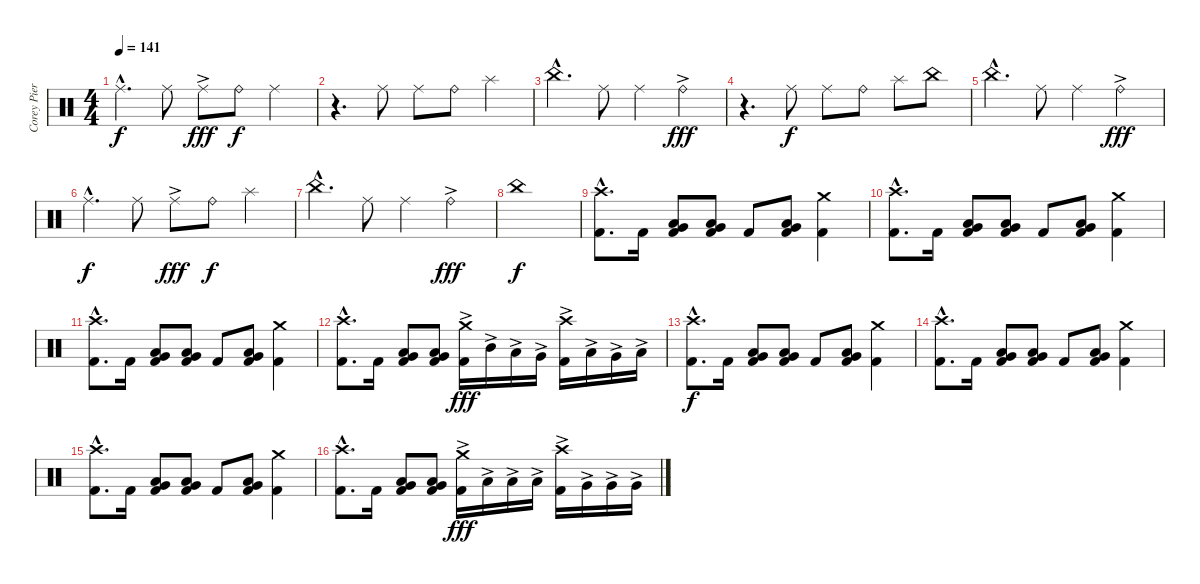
\track ("Corey Pierce (Drums)" "Corey Pier") {instrument percussion}
\staff {score}
\articulation defaults
\ts (4 4)
\tempo 141
\clef neutral
\ks c "Ride (middle)"{hac}.4{d dy f} "Ride (middle)".8 "Ride (middle)"{ac}.8{dy fff} "Ride (bell)".8{dy f} "Ride (middle)".4
|
r.4{d} "Ride (middle)".8 "Ride (middle)".8 "Ride (bell)".8 "Splash (hit)".4 |
"China (hit)"{hac}.4{d} "Ride (middle)".8 "Ride (middle)".4 "Ride (bell)"{ac}.4{dy fff} |
r.4{d} "Ride (middle)".8{dy f} "Ride (middle)".8 "Ride (bell)".8 "Splash (hit)".8 "China (hit)".8 |
"China (hit)"{hac}.4{d} "Ride (middle)".8 "Ride (middle)".4 "Ride (bell)"{ac}.4{dy fff} |
"Ride (middle)"{hac}.4{d dy f} "Ride (middle)".8 "Ride (middle)"{ac}.8{dy fff} "Ride (bell)".8{dy f} "Splash (hit)".4 |
"China (hit)"{hac}.4{d} "Ride (middle)".8 "Ride (middle)".4 "Ride (bell)"{ac}.4{dy fff} |
"China (hit)".1{dy f} |
("Crash high (hit)"{hac} "Kick (hit) 2"{hac}).8{d} "Kick (hit) 2".16 ("Low Tom (hit)" "Very Low Tom (hit)" "Kick (hit) 2").8 ("Very Low Tom (hit)" "Low Floor Tom (hit)" "Kick (hit) 2").8 "Kick (hit) 2".8 ("Very Low Tom (hit)" "Low Tom (hit)" "Kick (hit) 2").8 ("Crash medium (hit)" "Kick (hit) 2").4 |
("Crash high (hit)"{hac} "Kick (hit) 2"{hac}).8{d} "Kick (hit) 2".16 ("Low Tom (hit)" "Very Low Tom (hit)" "Kick (hit) 2").8 ("Very Low Tom (hit)" "Low Floor Tom (hit)" "Kick (hit) 2").8 "Kick (hit) 2".8 ("Very Low Tom (hit)" "Low Tom (hit)" "Kick (hit) 2").8 ("Crash medium (hit)" "Kick (hit) 2").4 |
("Crash high (hit)"{hac} "Kick (hit) 2"{hac}).8{d} "Kick (hit) 2".16 ("Low Tom (hit)" "Very Low Tom (hit)" "Kick (hit) 2").8 ("Very Low Tom (hit)" "Low Floor Tom (hit)" "Kick (hit) 2").8 "Kick (hit) 2".8 ("Very Low Tom (hit)" "Low Tom (hit)" "Kick (hit) 2").8 ("Crash medium (hit)" "Kick (hit) 2").4 |
("Crash high (hit)"{hac} "Kick (hit) 2"{hac}).8{d} "Kick (hit) 2".16 ("Low Tom (hit)" "Very Low Tom (hit)" "Kick (hit) 2").8 ("Very Low Tom (hit)" "Low Floor Tom (hit)" "Kick (hit) 2").8 ("Crash medium (hit)" "Kick (hit) 2"{ac}).16{dy fff} "Mid Tom (hit)"{ac}.16 "Low Tom (hit)"{ac}.16 "Very Low Tom (hit)"{ac}.16 ("Crash high (hit)" "Kick (hit) 2"{ac}).16 "Low Tom (hit)"{ac}.16 "Very Low Tom (hit)"{ac}.16 "Low Floor Tom (hit)"{ac}.16 |
("Crash high (hit)"{hac} "Kick (hit) 2"{hac}).8{d dy f} "Kick (hit) 2".16 ("Low Tom (hit)" "Very Low Tom (hit)" "Kick (hit) 2").8 ("Very Low Tom (hit)" "Low Floor Tom (hit)" "Kick (hit) 2").8 "Kick (hit) 2".8 ("Very Low Tom (hit)" "Low Tom (hit)" "Kick (hit) 2").8 ("Crash medium (hit)" "Kick (hit) 2").4 |
("Crash high (hit)"{hac} "Kick (hit) 2"{hac}).8{d} "Kick (hit) 2".16 ("Low Tom (hit)" "Very Low Tom (hit)" "Kick (hit) 2").8 ("Very Low Tom (hit)" "Low Floor Tom (hit)" "Kick (hit) 2").8 "Kick (hit) 2".8 ("Very Low Tom (hit)" "Low Tom (hit)" "Kick (hit) 2").8 ("Crash medium (hit)" "Kick (hit) 2").4 |
("Crash high (hit)"{hac} "Kick (hit) 2"{hac}).8{d} "Kick (hit) 2".16 ("Low Tom (hit)" "Very Low Tom (hit)" "Kick (hit) 2").8 ("Very Low Tom (hit)" "Low Floor Tom (hit)" "Kick (hit) 2").8 "Kick (hit) 2".8 ("Very Low Tom (hit)" "Low Tom (hit)" "Kick (hit) 2").8 ("Crash medium (hit)" "Kick (hit) 2").4 |
("Crash high (hit)"{hac} "Kick (hit) 2"{hac}).8{d} "Kick (hit) 2".16 ("Low Tom (hit)" "Very Low Tom (hit)" "Kick (hit) 2").8 ("Very Low Tom (hit)" "Low Floor Tom (hit)" "Kick (hit) 2").8 ("Crash medium (hit)" "Kick (hit) 2"{ac}).16{dy fff} "Low Tom (hit)"{ac}.16 "Low Tom (hit)"{ac}.16 "Low Tom (hit)"{ac}.16 ("Crash high (hit)" "Kick (hit) 2"{ac}).16 "Very Low Tom (hit)"{ac}.16 "Very Low Tom (hit)"{ac}.16 "Very Low Tom (hit)"{ac}.16
